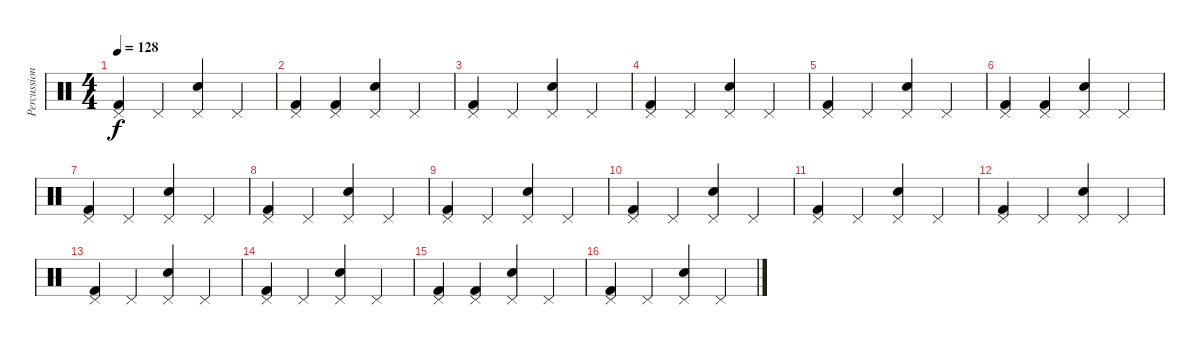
\track ("Percussion" "Percussion") {instrument percussion}
\staff {score}
\articulation defaults
\ts (4 4)
\tempo 128
\clef neutral
\ks c
("Kick (hit) 2" "Pedal Hi-Hat (hit)").4{dy f} "Pedal Hi-Hat (hit)".4 ("Electric Snare (hit)" "Pedal Hi-Hat (hit)").4 "Pedal Hi-Hat (hit)".4 |
("Kick (hit) 2" "Pedal Hi-Hat (hit)").4 ("Kick (hit) 2" "Pedal Hi-Hat (hit)").4 ("Electric Snare (hit)" "Pedal Hi-Hat (hit)").4 "Pedal Hi-Hat (hit)".4 |
("Kick (hit) 2" "Pedal Hi-Hat (hit)").4 "Pedal Hi-Hat (hit)".4 ("Electric Snare (hit)" "Pedal Hi-Hat (hit)").4 "Pedal Hi-Hat (hit)".4 |
("Kick (hit) 2" "Pedal Hi-Hat (hit)").4 "Pedal Hi-Hat (hit)".4 ("Electric Snare (hit)" "Pedal Hi-Hat (hit)").4 "Pedal Hi-Hat (hit)".4 |
("Kick (hit) 2" "Pedal Hi-Hat (hit)").4 "Pedal Hi-Hat (hit)".4 ("Electric Snare (hit)" "Pedal Hi-Hat (hit)").4 "Pedal Hi-Hat (hit)".4 |
("Kick (hit) 2" "Pedal Hi-Hat (hit)").4 ("Kick (hit) 2" "Pedal Hi-Hat (hit)").4 ("Electric Snare (hit)" "Pedal Hi-Hat (hit)").4 "Pedal Hi-Hat (hit)".4 |
("Kick (hit) 2" "Pedal Hi-Hat (hit)").4 "Pedal Hi-Hat (hit)".4 ("Electric Snare (hit)" "Pedal Hi-Hat (hit)").4 "Pedal Hi-Hat (hit)".4 |
("Kick (hit) 2" "Pedal Hi-Hat (hit)").4 "Pedal Hi-Hat (hit)".4 ("Electric Snare (hit)" "Pedal Hi-Hat (hit)").4 "Pedal Hi-Hat (hit)".4 |
("Kick (hit) 2" "Pedal Hi-Hat (hit)").4 "Pedal Hi-Hat (hit)".4 ("Electric Snare (hit)" "Pedal Hi-Hat (hit)").4 "Pedal Hi-Hat (hit)".4 |
("Kick (hit) 2" "Pedal Hi-Hat (hit)").4 "Pedal Hi-Hat (hit)".4 ("Electric Snare (hit)" "Pedal Hi-Hat (hit)").4 "Pedal Hi-Hat (hit)".4 |
("Kick (hit) 2" "Pedal Hi-Hat (hit)").4 "Pedal Hi-Hat (hit)".4 ("Electric Snare (hit)" "Pedal Hi-Hat (hit)").4 "Pedal Hi-Hat (hit)".4 |
("Kick (hit) 2" "Pedal Hi-Hat (hit)").4 "Pedal Hi-Hat (hit)".4 ("Electric Snare (hit)" "Pedal Hi-Hat (hit)").4 "Pedal Hi-Hat (hit)".4 |
("Kick (hit) 2" "Pedal Hi-Hat (hit)").4 "Pedal Hi-Hat (hit)".4 ("Electric Snare (hit)" "Pedal Hi-Hat (hit)").4 "Pedal Hi-Hat (hit)".4 |
("Kick (hit) 2" "Pedal Hi-Hat (hit)").4 "Pedal Hi-Hat (hit)".4 ("Electric Snare (hit)" "Pedal Hi-Hat (hit)").4 "Pedal Hi-Hat (hit)".4 |
("Kick (hit) 2" "Pedal Hi-Hat (hit)").4 ("Kick (hit) 2" "Pedal Hi-Hat (hit)").4 ("Electric Snare (hit)" "Pedal Hi-Hat (hit)").4 "Pedal Hi-Hat (hit)".4 |
("Kick (hit) 2" "Pedal Hi-Hat (hit)").4 "Pedal Hi-Hat (hit)".4 ("Electric Snare (hit)" "Pedal Hi-Hat (hit)").4 "Pedal Hi-Hat (hit)".4
